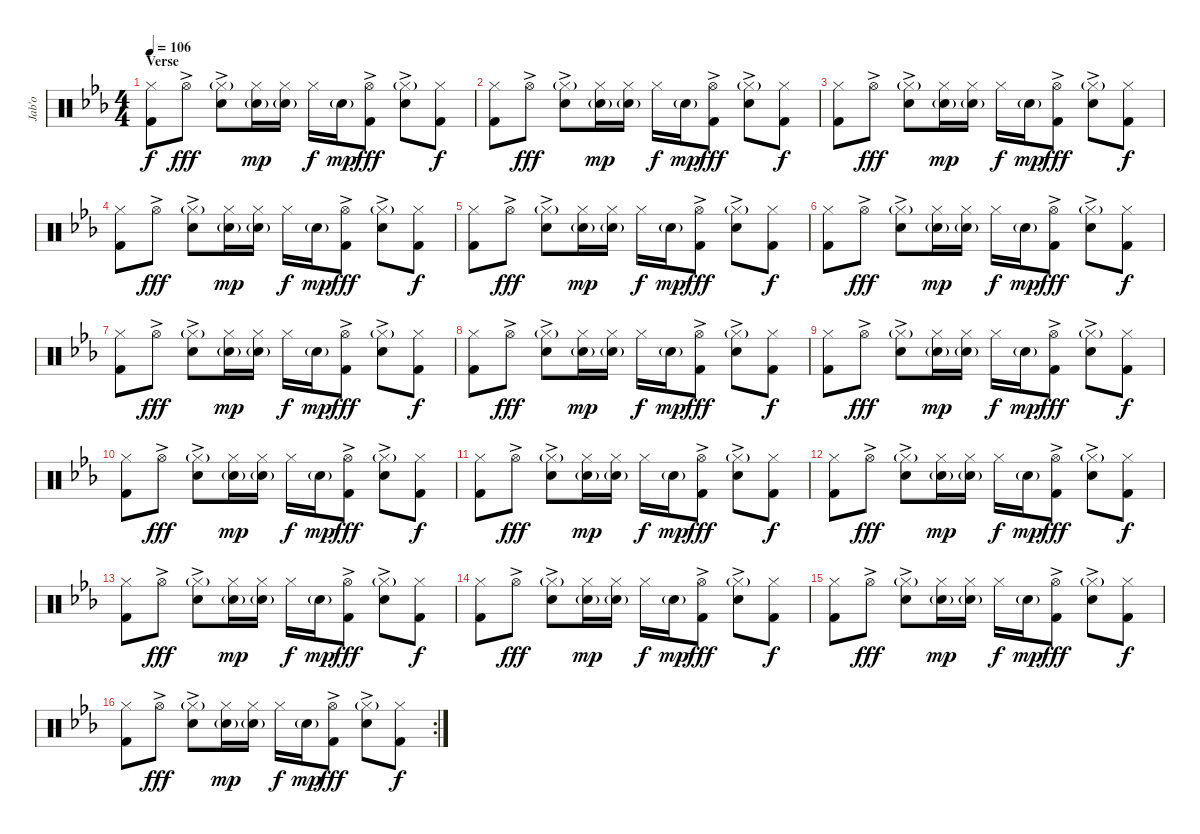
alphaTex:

\track ("Jab'o" "Jab'o") {instrument percussion}
\staff {score}
\articulation defaults
\ts (4 4)
\section ("" "Verse")
\tempo 106
\clef neutral
\ks eb
("Hi-Hat (closed)" "Kick (hit) 2").8{dy f} "Hi-Hat (open)"{ac}.8{dy fff} ("Hi-Hat (closed)"{g} "Snare (hit) 2"{ac}).8 ("Hi-Hat (closed)" "Snare (hit) 2"{g}).16{dy mp} ("Hi-Hat (closed)" "Snare (hit) 2"{g}).16 "Hi-Hat (closed)".16{dy f} "Snare (hit) 2"{g}.16{dy mp} ("Hi-Hat (open)"{ac} "Kick (hit) 2"{ac}).8{dy fff} ("Hi-Hat (closed)"{g} "Snare (hit) 2"{ac}).8 ("Hi-Hat (closed)" "Kick (hit) 2").8{dy f} |
("Hi-Hat (closed)" "Kick (hit) 2").8 "Hi-Hat (open)"{ac}.8{dy fff} ("Hi-Hat (closed)"{g} "Snare (hit) 2"{ac}).8 ("Hi-Hat (closed)" "Snare (hit) 2"{g}).16{dy mp} ("Hi-Hat (closed)" "Snare (hit) 2"{g}).16 "Hi-Hat (closed)".16{dy f} "Snare (hit) 2"{g}.16{dy mp} ("Hi-Hat (open)"{ac} "Kick (hit) 2"{ac}).8{dy fff} ("Hi-Hat (closed)"{g} "Snare (hit) 2"{ac}).8 ("Hi-Hat (closed)" "Kick (hit) 2").8{dy f} |
("Hi-Hat (closed)" "Kick (hit) 2").8 "Hi-Hat (open)"{ac}.8{dy fff} ("Hi-Hat (closed)"{g} "Snare (hit) 2"{ac}).8 ("Hi-Hat (closed)" "Snare (hit) 2"{g}).16{dy mp} ("Hi-Hat (closed)" "Snare (hit) 2"{g}).16 "Hi-Hat (closed)".16{dy f} "Snare (hit) 2"{g}.16{dy mp} ("Hi-Hat (open)"{ac} "Kick (hit) 2"{ac}).8{dy fff} ("Hi-Hat (closed)"{g} "Snare (hit) 2"{ac}).8 ("Hi-Hat (closed)" "Kick (hit) 2").8{dy f} |
("Hi-Hat (closed)" "Kick (hit) 2").8 "Hi-Hat (open)"{ac}.8{dy fff} ("Hi-Hat (closed)"{g} "Snare (hit) 2"{ac}).8 ("Hi-Hat (closed)" "Snare (hit) 2"{g}).16{dy mp} ("Hi-Hat (closed)" "Snare (hit) 2"{g}).16 "Hi-Hat (closed)".16{dy f} "Snare (hit) 2"{g}.16{dy mp} ("Hi-Hat (open)"{ac} "Kick (hit) 2"{ac}).8{dy fff} ("Hi-Hat (closed)"{g} "Snare (hit) 2"{ac}).8 ("Hi-Hat (closed)" "Kick (hit) 2").8{dy f} |
("Hi-Hat (closed)" "Kick (hit) 2").8 "Hi-Hat (open)"{ac}.8{dy fff} ("Hi-Hat (closed)"{g} "Snare (hit) 2"{ac}).8 ("Hi-Hat (closed)" "Snare (hit) 2"{g}).16{dy mp} ("Hi-Hat (closed)" "Snare (hit) 2"{g}).16 "Hi-Hat (closed)".16{dy f} "Snare (hit) 2"{g}.16{dy mp} ("Hi-Hat (open)"{ac} "Kick (hit) 2"{ac}).8{dy fff} ("Hi-Hat (closed)"{g} "Snare (hit) 2"{ac}).8 ("Hi-Hat (closed)" "Kick (hit) 2").8{dy f} |
("Hi-Hat (closed)" "Kick (hit) 2").8 "Hi-Hat (open)"{ac}.8{dy fff} ("Hi-Hat (closed)"{g} "Snare (hit) 2"{ac}).8 ("Hi-Hat (closed)" "Snare (hit) 2"{g}).16{dy mp} ("Hi-Hat (closed)" "Snare (hit) 2"{g}).16 "Hi-Hat (closed)".16{dy f} "Snare (hit) 2"{g}.16{dy mp} ("Hi-Hat (open)"{ac} "Kick (hit) 2"{ac}).8{dy fff} ("Hi-Hat (closed)"{g} "Snare (hit) 2"{ac}).8 ("Hi-Hat (closed)" "Kick (hit) 2").8{dy f} |
("Hi-Hat (closed)" "Kick (hit) 2").8 "Hi-Hat (open)"{ac}.8{dy fff} ("Hi-Hat (closed)"{g} "Snare (hit) 2"{ac}).8 ("Hi-Hat (closed)" "Snare (hit) 2"{g}).16{dy mp} ("Hi-Hat (closed)" "Snare (hit) 2"{g}).16 "Hi-Hat (closed)".16{dy f} "Snare (hit) 2"{g}.16{dy mp} ("Hi-Hat (open)"{ac} "Kick (hit) 2"{ac}).8{dy fff} ("Hi-Hat (closed)"{g} "Snare (hit) 2"{ac}).8 ("Hi-Hat (closed)" "Kick (hit) 2").8{dy f} |
("Hi-Hat (closed)" "Kick (hit) 2").8 "Hi-Hat (open)"{ac}.8{dy fff} ("Hi-Hat (closed)"{g} "Snare (hit) 2"{ac}).8 ("Hi-Hat (closed)" "Snare (hit) 2"{g}).16{dy mp} ("Hi-Hat (closed)" "Snare (hit) 2"{g}).16 "Hi-Hat (closed)".16{dy f} "Snare (hit) 2"{g}.16{dy mp} ("Hi-Hat (open)"{ac} "Kick (hit) 2"{ac}).8{dy fff} ("Hi-Hat (closed)"{g} "Snare (hit) 2"{ac}).8 ("Hi-Hat (closed)" "Kick (hit) 2").8{dy f} |
("Hi-Hat (closed)" "Kick (hit) 2").8 "Hi-Hat (open)"{ac}.8{dy fff} ("Hi-Hat (closed)"{g} "Snare (hit) 2"{ac}).8 ("Hi-Hat (closed)" "Snare (hit) 2"{g}).16{dy mp} ("Hi-Hat (closed)" "Snare (hit) 2"{g}).16 "Hi-Hat (closed)".16{dy f} "Snare (hit) 2"{g}.16{dy mp} ("Hi-Hat (open)"{ac} "Kick (hit) 2"{ac}).8{dy fff} ("Hi-Hat (closed)"{g} "Snare (hit) 2"{ac}).8 ("Hi-Hat (closed)" "Kick (hit) 2").8{dy f} |
("Hi-Hat (closed)" "Kick (hit) 2").8 "Hi-Hat (open)"{ac}.8{dy fff} ("Hi-Hat (closed)"{g} "Snare (hit) 2"{ac}).8 ("Hi-Hat (closed)" "Snare (hit) 2"{g}).16{dy mp} ("Hi-Hat (closed)" "Snare (hit) 2"{g}).16 "Hi-Hat (closed)".16{dy f} "Snare (hit) 2"{g}.16{dy mp} ("Hi-Hat (open)"{ac} "Kick (hit) 2"{ac}).8{dy fff} ("Hi-Hat (closed)"{g} "Snare (hit) 2"{ac}).8 ("Hi-Hat (closed)" "Kick (hit) 2").8{dy f} |
("Hi-Hat (closed)" "Kick (hit) 2").8 "Hi-Hat (open)"{ac}.8{dy fff} ("Hi-Hat (closed)"{g} "Snare (hit) 2"{ac}).8 ("Hi-Hat (closed)" "Snare (hit) 2"{g}).16{dy mp} ("Hi-Hat (closed)" "Snare (hit) 2"{g}).16 "Hi-Hat (closed)".16{dy f} "Snare (hit) 2"{g}.16{dy mp} ("Hi-Hat (open)"{ac} "Kick (hit) 2"{ac}).8{dy fff} ("Hi-Hat (closed)"{g} "Snare (hit) 2"{ac}).8 ("Hi-Hat (closed)" "Kick (hit) 2").8{dy f} |
("Hi-Hat (closed)" "Kick (hit) 2").8 "Hi-Hat (open)"{ac}.8{dy fff} ("Hi-Hat (closed)"{g} "Snare (hit) 2"{ac}).8 ("Hi-Hat (closed)" "Snare (hit) 2"{g}).16{dy mp} ("Hi-Hat (closed)" "Snare (hit) 2"{g}).16 "Hi-Hat (closed)".16{dy f} "Snare (hit) 2"{g}.16{dy mp} ("Hi-Hat (open)"{ac} "Kick (hit) 2"{ac}).8{dy fff} ("Hi-Hat (closed)"{g} "Snare (hit) 2"{ac}).8 ("Hi-Hat (closed)" "Kick (hit) 2").8{dy f} |
("Hi-Hat (closed)" "Kick (hit) 2").8 "Hi-Hat (open)"{ac}.8{dy fff} ("Hi-Hat (closed)"{g} "Snare (hit) 2"{ac}).8 ("Hi-Hat (closed)" "Snare (hit) 2"{g}).16{dy mp} ("Hi-Hat (closed)" "Snare (hit) 2"{g}).16 "Hi-Hat (closed)".16{dy f} "Snare (hit) 2"{g}.16{dy mp} ("Hi-Hat (open)"{ac} "Kick (hit) 2"{ac}).8{dy fff} ("Hi-Hat (closed)"{g} "Snare (hit) 2"{ac}).8 ("Hi-Hat (closed)" "Kick (hit) 2").8{dy f} |
("Hi-Hat (closed)" "Kick (hit) 2").8 "Hi-Hat (open)"{ac}.8{dy fff} ("Hi-Hat (closed)"{g} "Snare (hit) 2"{ac}).8 ("Hi-Hat (closed)" "Snare (hit) 2"{g}).16{dy mp} ("Hi-Hat (closed)" "Snare (hit) 2"{g}).16 "Hi-Hat (closed)".16{dy f} "Snare (hit) 2"{g}.16{dy mp} ("Hi-Hat (open)"{ac} "Kick (hit) 2"{ac}).8{dy fff} ("Hi-Hat (closed)"{g} "Snare (hit) 2"{ac}).8 ("Hi-Hat (closed)" "Kick (hit) 2").8{dy f} |
("Hi-Hat (closed)" "Kick (hit) 2").8 "Hi-Hat (open)"{ac}.8{dy fff} ("Hi-Hat (closed)"{g} "Snare (hit) 2"{ac}).8 ("Hi-Hat (closed)" "Snare (hit) 2"{g}).16{dy mp} ("Hi-Hat (closed)" "Snare (hit) 2"{g}).16 "Hi-Hat (closed)".16{dy f} "Snare (hit) 2"{g}.16{dy mp} ("Hi-Hat (open)"{ac} "Kick (hit) 2"{ac}).8{dy fff} ("Hi-Hat (closed)"{g} "Snare (hit) 2"{ac}).8 ("Hi-Hat (closed)" "Kick (hit) 2").8{dy f} |
\rc 2
("Hi-Hat (closed)" "Kick (hit) 2").8 "Hi-Hat (open)"{ac}.8{dy fff} ("Hi-Hat (closed)"{g} "Snare (hit) 2"{ac}).8 ("Hi-Hat (closed)" "Snare (hit) 2"{g}).16{dy mp} ("Hi-Hat (closed)" "Snare (hit) 2"{g}).16 "Hi-Hat (closed)".16{dy f} "Snare (hit) 2"{g}.16{dy mp} ("Hi-Hat (open)"{ac} "Kick (hit) 2"{ac}).8{dy fff} ("Hi-Hat (closed)"{g} "Snare (hit) 2"{ac}).8 ("Hi-Hat (closed)" "Kick (hit) 2").8{dy f}
